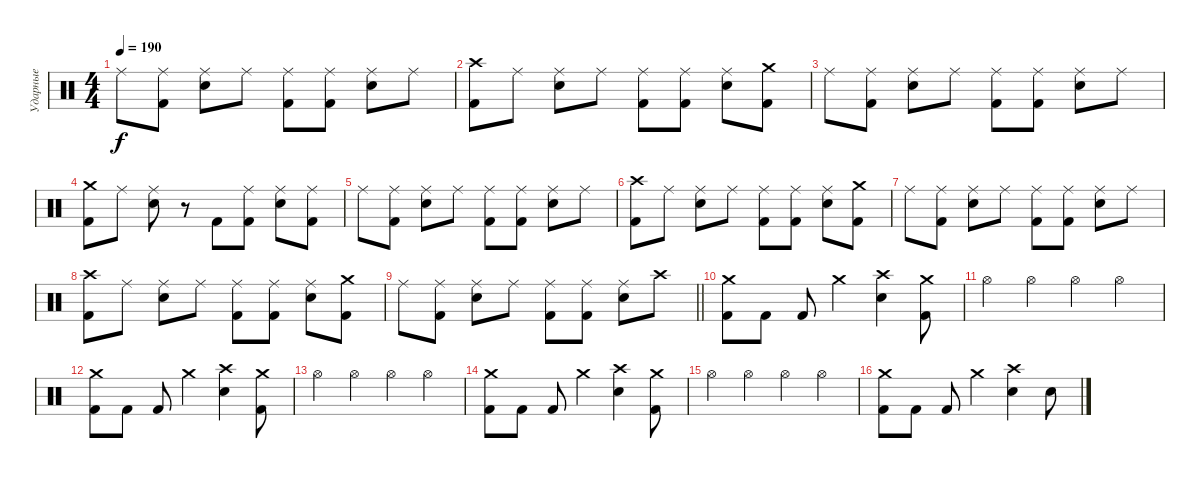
\track ("Ударные" "Ударные") {instrument percussion}
\staff {score}
\articulation defaults
\ts (4 4)
\tempo 190
\clef neutral
\ks c "Ride (middle)".8{dy f}
("Ride (middle)" "Kick (hit) 2").8 ("Ride (middle)" "Electric Snare (hit)").8 "Ride (middle)".8 ("Ride (middle)" "Kick (hit) 2").8 ("Ride (middle)" "Kick (hit) 2").8 ("Ride (middle)" "Electric Snare (hit)").8 "Ride (middle)".8 |
("Crash high (hit)" "Kick (hit) 2").8 "Ride (middle)".8 ("Ride (middle)" "Electric Snare (hit)").8 "Ride (middle)".8 ("Ride (middle)" "Kick (hit) 2").8 ("Ride (middle)" "Kick (hit) 2").8 ("Ride (middle)" "Electric Snare (hit)").8 ("Crash medium (hit)" "Kick (hit) 2").8 |
"Ride (middle)".8 ("Ride (middle)" "Kick (hit) 2").8 ("Ride (middle)" "Electric Snare (hit)").8 "Ride (middle)".8 ("Ride (middle)" "Kick (hit) 2").8 ("Ride (middle)" "Kick (hit) 2").8 ("Ride (middle)" "Electric Snare (hit)").8 "Ride (middle)".8 |
("Crash medium (hit)" "Kick (hit) 2").8 "Ride (middle)".8 ("Ride (middle)" "Electric Snare (hit)").8 r.8 "Kick (hit) 2".8 ("Ride (middle)" "Kick (hit) 2").8 ("Ride (middle)" "Electric Snare (hit)").8 ("Ride (middle)" "Kick (hit) 2").8 |
"Ride (middle)".8 ("Ride (middle)" "Kick (hit) 2").8 ("Ride (middle)" "Electric Snare (hit)").8 "Ride (middle)".8 ("Ride (middle)" "Kick (hit) 2").8 ("Ride (middle)" "Kick (hit) 2").8 ("Ride (middle)" "Electric Snare (hit)").8 "Ride (middle)".8 |
("Crash high (hit)" "Kick (hit) 2").8 "Ride (middle)".8 ("Ride (middle)" "Electric Snare (hit)").8 "Ride (middle)".8 ("Ride (middle)" "Kick (hit) 2").8 ("Ride (middle)" "Kick (hit) 2").8 ("Ride (middle)" "Electric Snare (hit)").8 ("Crash medium (hit)" "Kick (hit) 2").8 |
"Ride (middle)".8 ("Ride (middle)" "Kick (hit) 2").8 ("Ride (middle)" "Electric Snare (hit)").8 "Ride (middle)".8 ("Ride (middle)" "Kick (hit) 2").8 ("Ride (middle)" "Kick (hit) 2").8 ("Ride (middle)" "Electric Snare (hit)").8 "Ride (middle)".8 |
("Crash high (hit)" "Kick (hit) 2").8 "Ride (middle)".8 ("Ride (middle)" "Electric Snare (hit)").8 "Ride (middle)".8 ("Ride (middle)" "Kick (hit) 2").8 ("Ride (middle)" "Kick (hit) 2").8 ("Ride (middle)" "Electric Snare (hit)").8 ("Crash medium (hit)" "Kick (hit) 2").8 |
\barLineRight lightlight "Ride (middle)".8
("Ride (middle)" "Kick (hit) 2").8 ("Ride (middle)" "Electric Snare (hit)").8 "Ride (middle)".8 ("Ride (middle)" "Kick (hit) 2").8 ("Ride (middle)" "Kick (hit) 2").8 ("Ride (middle)" "Electric Snare (hit)").8 "Crash high (hit)".8 |
("Crash medium (hit)" "Kick (hit) 2").8 "Kick (hit) 2".8 "Kick (hit) 2".8 "Crash medium (hit)".4 ("Crash high (hit)" "Electric Snare (hit)").4 ("Crash medium (hit)" "Kick (hit) 2").8 |
"Hi-Hat (open)".4 "Hi-Hat (open)".4 "Hi-Hat (open)".4 "Hi-Hat (open)".4 |
("Crash medium (hit)" "Kick (hit) 2").8 "Kick (hit) 2".8 "Kick (hit) 2".8 "Crash medium (hit)".4 ("Crash high (hit)" "Electric Snare (hit)").4 ("Crash medium (hit)" "Kick (hit) 2").8 |
"Hi-Hat (open)".4 "Hi-Hat (open)".4 "Hi-Hat (open)".4 "Hi-Hat (open)".4 |
("Crash medium (hit)" "Kick (hit) 2").8 "Kick (hit) 2".8 "Kick (hit) 2".8 "Crash medium (hit)".4 ("Crash high (hit)" "Electric Snare (hit)").4 ("Crash medium (hit)" "Kick (hit) 2").8 |
"Hi-Hat (open)".4 "Hi-Hat (open)".4 "Hi-Hat (open)".4 "Hi-Hat (open)".4 |
("Crash medium (hit)" "Kick (hit) 2").8 "Kick (hit) 2".8 "Kick (hit) 2".8 "Crash medium (hit)".4 ("Crash high (hit)" "Electric Snare (hit)").4 "Electric Snare (hit)".8
